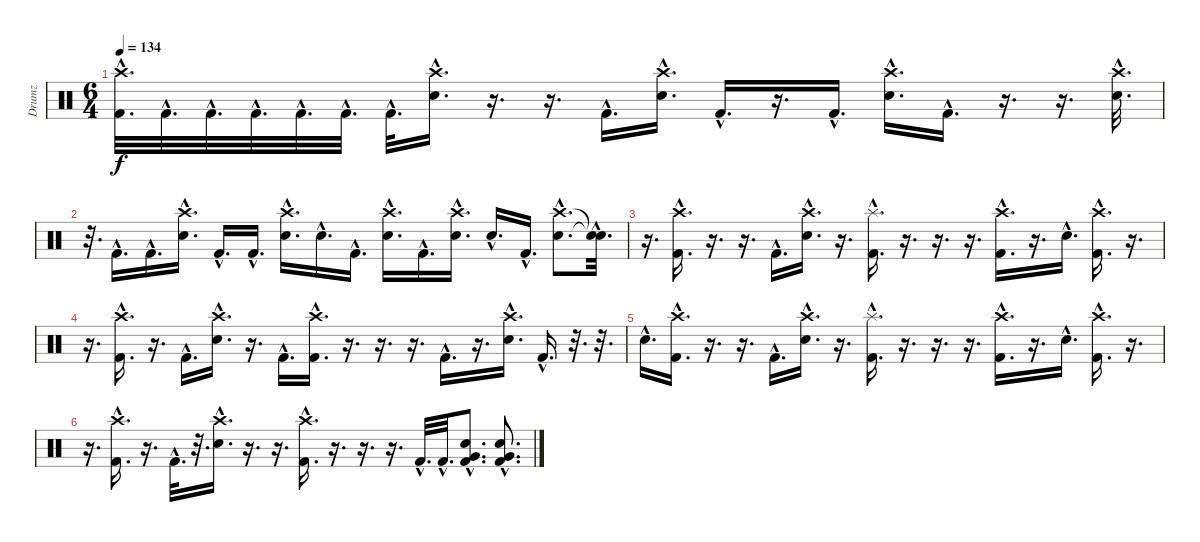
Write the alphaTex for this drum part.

\track ("Drumz" "Drumz") {instrument percussion}
\staff {score}
\articulation defaults
\ts (6 4)
\tempo 134
\clef neutral
\ks c
("Crash high (hit)"{hac} "Kick (hit) 2"{hac}).32{d dy f} "Kick (hit) 2"{hac}.32{d} "Kick (hit) 2"{hac}.32{d} "Kick (hit) 2"{hac}.32{d} "Kick (hit) 2"{hac}.32{d} "Kick (hit) 2"{hac}.32{d} "Kick (hit) 2"{hac}.32{d} ("Crash high (hit)"{hac} "Snare (hit) 2"{hac}).16{d} r.16{d} r.16{d} "Kick (hit) 2"{hac}.16{d} ("Crash high (hit)"{hac} "Snare (hit) 2"{hac}).16{d} "Kick (hit) 2"{hac}.16{d} r.16{d} "Kick (hit) 2"{hac}.16{d} ("Crash high (hit)"{hac} "Snare (hit) 2"{hac}).16{d} "Kick (hit) 2"{hac}.16{d} r.16{d} r.16{d} ("Crash high (hit)"{hac} "Snare (hit) 2"{hac}).32{d} |
r.32{d} "Kick (hit) 2"{hac}.16{d} "Kick (hit) 2"{hac}.16{d} ("Crash high (hit)"{hac} "Snare (hit) 2"{hac}).16{d} "Kick (hit) 2"{hac}.16{d} "Kick (hit) 2"{hac}.16{d} ("Crash high (hit)"{hac} "Snare (hit) 2"{hac}).16{d} "Snare (hit) 2"{hac}.16{d} "Kick (hit) 2"{hac}.16{d} ("Crash high (hit)"{hac} "Snare (hit) 2"{hac}).16{d} "Kick (hit) 2"{hac}.16{d} ("Crash high (hit)"{hac} "Snare (hit) 2"{hac}).16{d} "Snare (hit) 2"{hac}.16{d} "Kick (hit) 2"{hac}.16{d} ("Crash high (hit)"{hac} "Snare (hit) 2"{hac}).8{d} ("Snare (hit)"{hac t} "Snare (hit)"{hac t}).32{d} |
r.16{d} ("Crash high (hit)"{hac} "Kick (hit) 2"{hac}).16{d} r.16{d} r.16{d} "Kick (hit) 2"{hac}.16{d} ("Crash high (hit)"{hac} "Snare (hit) 2"{hac}).16{d} r.16{d} ("Splash (hit)"{hac} "Kick (hit) 2"{hac}).16{d} r.16{d} r.16{d} r.16{d} ("Crash high (hit)"{hac} "Kick (hit) 2"{hac}).16{d} r.16{d} "Snare (hit) 2"{hac}.16{d} ("Crash high (hit)"{hac} "Kick (hit) 2"{hac}).16{d} r.16{d} |
r.16{d} ("Crash high (hit)"{hac} "Kick (hit) 2"{hac}).16{d} r.16{d} "Kick (hit) 2"{hac}.16{d} ("Crash high (hit)"{hac} "Snare (hit) 2"{hac}).16{d} r.16{d} "Kick (hit) 2"{hac}.16{d} ("Crash high (hit)"{hac} "Kick (hit) 2"{hac}).16{d} r.16{d} r.16{d} r.16{d} "Kick (hit) 2"{hac}.16{d} r.16{d} ("Crash high (hit)"{hac} "Snare (hit) 2"{hac}).16{d} "Kick (hit) 2"{hac}.16{d} r.32{d} r.32{d} |
"Snare (hit) 2"{hac}.16{d} ("Crash high (hit)"{hac} "Kick (hit) 2"{hac}).16{d} r.16{d} r.16{d} "Kick (hit) 2"{hac}.16{d} ("Crash high (hit)"{hac} "Snare (hit) 2"{hac}).16{d} r.16{d} ("Splash (hit)"{hac} "Kick (hit) 2"{hac}).16{d} r.16{d} r.16{d} r.16{d} ("Crash high (hit)"{hac} "Kick (hit) 2"{hac}).16{d} r.16{d} "Snare (hit) 2"{hac}.16{d} ("Crash high (hit)"{hac} "Kick (hit) 2"{hac}).16{d} r.16{d} |
r.16{d} ("Crash high (hit)"{hac} "Kick (hit) 2"{hac}).16{d} r.16{d} "Kick (hit) 2"{hac}.32{d} r.32{d} ("Crash high (hit)"{hac} "Snare (hit) 2"{hac}).16{d} r.16{d} r.16{d} ("Crash high (hit)"{hac} "Kick (hit) 2"{hac}).16{d} r.16{d} r.16{d} r.16{d} "Kick (hit) 2"{hac}.32{d} "Kick (hit) 2"{hac}.32{d} ("Very Low Tom (hit)"{hac} "Snare (hit) 2"{hac} "Kick (hit) 2"{hac}).8{d} ("Very Low Tom (hit)"{hac} "Snare (hit) 2"{hac} "Kick (hit) 2"{hac}).8{d}
